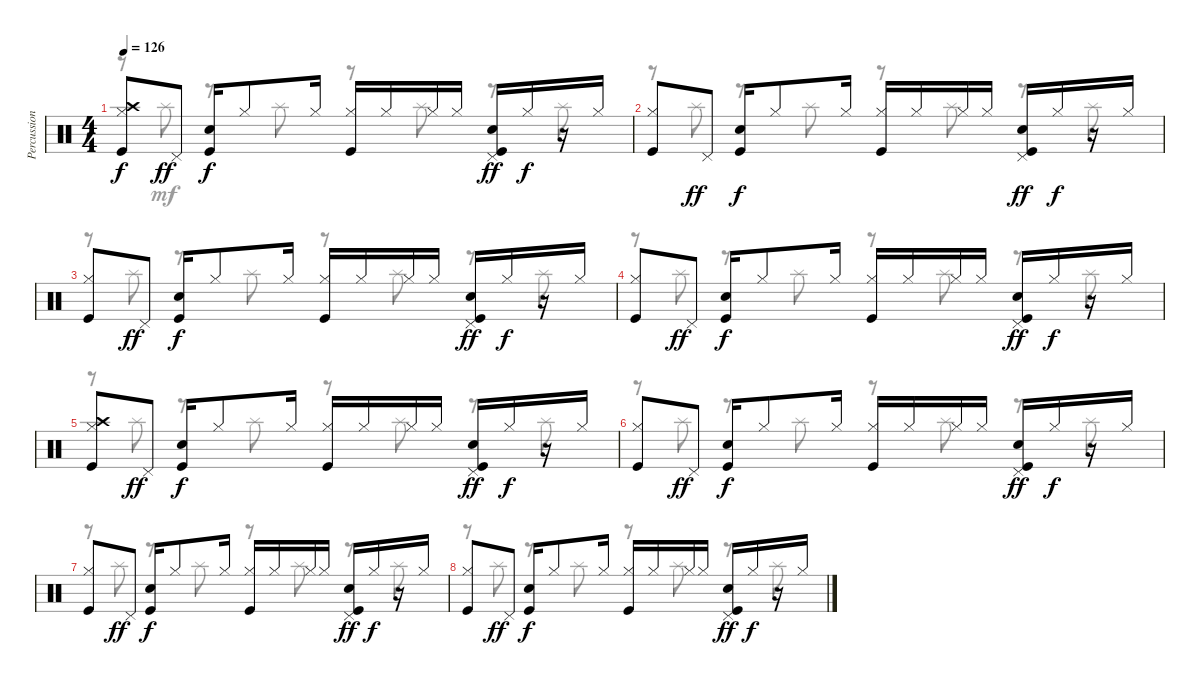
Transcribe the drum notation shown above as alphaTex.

\track ("Percussion" "Percussion") {instrument percussion}
\staff {score}
\articulation defaults
\voice
\ts (4 4)
\tempo 126
\clef neutral
\ks c
("Kick (hit)" "Hi-Hat (closed)" "Crash high (hit)").8{dy f} "Pedal Hi-Hat (hit)".8{dy ff} ("Kick (hit)" "Snare (hit) 2").16{dy f} "Hi-Hat (closed)".8 "Hi-Hat (closed)".16 ("Kick (hit)" "Hi-Hat (closed)").16 "Hi-Hat (closed)".16 "Hi-Hat (closed)".16 "Hi-Hat (closed)".16 ("Kick (hit)" "Snare (hit) 2" "Pedal Hi-Hat (hit)").16{dy ff} "Hi-Hat (closed)".16{dy f} r.16 "Hi-Hat (closed)".16 |
("Kick (hit)" "Hi-Hat (closed)").8 "Pedal Hi-Hat (hit)".8{dy ff} ("Kick (hit)" "Snare (hit) 2").16{dy f} "Hi-Hat (closed)".8 "Hi-Hat (closed)".16 ("Kick (hit)" "Hi-Hat (closed)").16 "Hi-Hat (closed)".16 "Hi-Hat (closed)".16 "Hi-Hat (closed)".16 ("Kick (hit)" "Snare (hit) 2" "Pedal Hi-Hat (hit)").16{dy ff} "Hi-Hat (closed)".16{dy f} r.16 "Hi-Hat (closed)".16 |
("Kick (hit)" "Hi-Hat (closed)").8 "Pedal Hi-Hat (hit)".8{dy ff} ("Kick (hit)" "Snare (hit) 2").16{dy f} "Hi-Hat (closed)".8 "Hi-Hat (closed)".16 ("Kick (hit)" "Hi-Hat (closed)").16 "Hi-Hat (closed)".16 "Hi-Hat (closed)".16 "Hi-Hat (closed)".16 ("Kick (hit)" "Snare (hit) 2" "Pedal Hi-Hat (hit)").16{dy ff} "Hi-Hat (closed)".16{dy f} r.16 "Hi-Hat (closed)".16 |
("Kick (hit)" "Hi-Hat (closed)").8 "Pedal Hi-Hat (hit)".8{dy ff} ("Kick (hit)" "Snare (hit) 2").16{dy f} "Hi-Hat (closed)".8 "Hi-Hat (closed)".16 ("Kick (hit)" "Hi-Hat (closed)").16 "Hi-Hat (closed)".16 "Hi-Hat (closed)".16 "Hi-Hat (closed)".16 ("Kick (hit)" "Snare (hit) 2" "Pedal Hi-Hat (hit)").16{dy ff} "Hi-Hat (closed)".16{dy f} r.16 "Hi-Hat (closed)".16 |
("Kick (hit)" "Hi-Hat (closed)" "Crash high (hit)").8 "Pedal Hi-Hat (hit)".8{dy ff} ("Kick (hit)" "Snare (hit) 2").16{dy f} "Hi-Hat (closed)".8 "Hi-Hat (closed)".16 ("Kick (hit)" "Hi-Hat (closed)").16 "Hi-Hat (closed)".16 "Hi-Hat (closed)".16 "Hi-Hat (closed)".16 ("Kick (hit)" "Snare (hit) 2" "Pedal Hi-Hat (hit)").16{dy ff} "Hi-Hat (closed)".16{dy f} r.16 "Hi-Hat (closed)".16 |
("Kick (hit)" "Hi-Hat (closed)").8 "Pedal Hi-Hat (hit)".8{dy ff} ("Kick (hit)" "Snare (hit) 2").16{dy f} "Hi-Hat (closed)".8 "Hi-Hat (closed)".16 ("Kick (hit)" "Hi-Hat (closed)").16 "Hi-Hat (closed)".16 "Hi-Hat (closed)".16 "Hi-Hat (closed)".16 ("Kick (hit)" "Snare (hit) 2" "Pedal Hi-Hat (hit)").16{dy ff} "Hi-Hat (closed)".16{dy f} r.16 "Hi-Hat (closed)".16 |
("Kick (hit)" "Hi-Hat (closed)").8 "Pedal Hi-Hat (hit)".8{dy ff} ("Kick (hit)" "Snare (hit) 2").16{dy f} "Hi-Hat (closed)".8 "Hi-Hat (closed)".16 ("Kick (hit)" "Hi-Hat (closed)").16 "Hi-Hat (closed)".16 "Hi-Hat (closed)".16 "Hi-Hat (closed)".16 ("Kick (hit)" "Snare (hit) 2" "Pedal Hi-Hat (hit)").16{dy ff} "Hi-Hat (closed)".16{dy f} r.16 "Hi-Hat (closed)".16 |
("Kick (hit)" "Hi-Hat (closed)").8 "Pedal Hi-Hat (hit)".8{dy ff} ("Kick (hit)" "Snare (hit) 2").16{dy f} "Hi-Hat (closed)".8 "Hi-Hat (closed)".16 ("Kick (hit)" "Hi-Hat (closed)").16 "Hi-Hat (closed)".16 "Hi-Hat (closed)".16 "Hi-Hat (closed)".16 ("Kick (hit)" "Snare (hit) 2" "Pedal Hi-Hat (hit)").16{dy ff} "Hi-Hat (closed)".16{dy f} r.16 "Hi-Hat (closed)".16 |
|
|
|
|
|
|
|
\voice
\clef neutral
\ottava regular
\simile none
\ks c
r.8{dy mf} "Splash (hit)".8 r.8 "Splash (hit)".8 r.8 "Splash (hit)".8 r.8 "Splash (hit)".8 |
r.8 "Splash (hit)".8 r.8 "Splash (hit)".8 r.8 "Splash (hit)".8 r.8 "Splash (hit)".8 |
r.8 "Splash (hit)".8 r.8 "Splash (hit)".8 r.8 "Splash (hit)".8 r.8 "Splash (hit)".8 |
r.8 "Splash (hit)".8 r.8 "Splash (hit)".8 r.8 "Splash (hit)".8 r.8 "Splash (hit)".8 |
r.8 "Splash (hit)".8 r.8 "Splash (hit)".8 r.8 "Splash (hit)".8 r.8 "Splash (hit)".8 |
r.8 "Splash (hit)".8 r.8 "Splash (hit)".8 r.8 "Splash (hit)".8 r.8 "Splash (hit)".8 |
r.8 "Splash (hit)".8 r.8 "Splash (hit)".8 r.8 "Splash (hit)".8 r.8 "Splash (hit)".8 |
r.8 "Splash (hit)".8 r.8 "Splash (hit)".8 r.8 "Splash (hit)".8 r.8 "Splash (hit)".8 |
|
|
|
|
|
|
|
